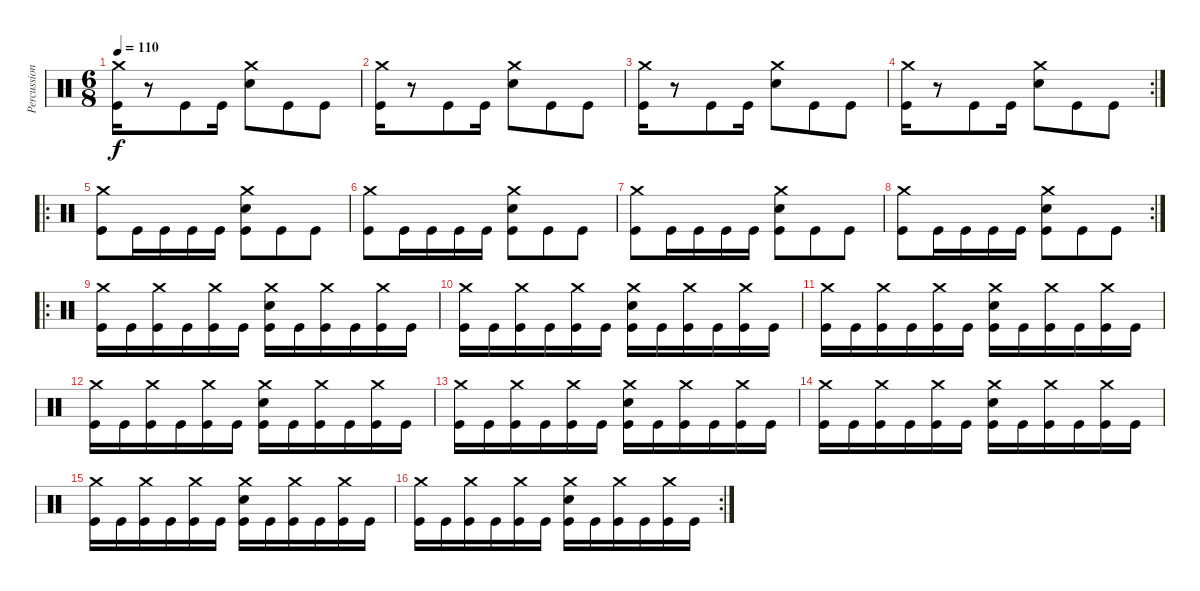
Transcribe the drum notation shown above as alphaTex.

\track ("Percussion" "Percussion") {instrument percussion}
\staff {score}
\articulation defaults
\ts (6 8)
\tempo 110
\clef neutral
\ks c
("Crash medium (hit)" "Kick (hit)").16{dy f} r.8 "Kick (hit)".8 "Kick (hit)".16 ("Crash medium (hit)" "Snare (hit) 2").8 "Kick (hit)".8 "Kick (hit)".8 |
("Crash medium (hit)" "Kick (hit)").16 r.8 "Kick (hit)".8 "Kick (hit)".16 ("Crash medium (hit)" "Snare (hit) 2").8 "Kick (hit)".8 "Kick (hit)".8 |
("Crash medium (hit)" "Kick (hit)").16 r.8 "Kick (hit)".8 "Kick (hit)".16 ("Crash medium (hit)" "Snare (hit) 2").8 "Kick (hit)".8 "Kick (hit)".8 |
\rc 2
("Crash medium (hit)" "Kick (hit)").16 r.8 "Kick (hit)".8 "Kick (hit)".16 ("Crash medium (hit)" "Snare (hit) 2").8 "Kick (hit)".8 "Kick (hit)".8 |
\ro
("Crash medium (hit)" "Kick (hit)").8 "Kick (hit)".16 "Kick (hit)".16 "Kick (hit)".16 "Kick (hit)".16 ("Crash medium (hit)" "Snare (hit) 2" "Kick (hit)").8 "Kick (hit)".8 "Kick (hit)".8 |
("Crash medium (hit)" "Kick (hit)").8 "Kick (hit)".16 "Kick (hit)".16 "Kick (hit)".16 "Kick (hit)".16 ("Crash medium (hit)" "Snare (hit) 2" "Kick (hit)").8 "Kick (hit)".8 "Kick (hit)".8 |
("Crash medium (hit)" "Kick (hit)").8 "Kick (hit)".16 "Kick (hit)".16 "Kick (hit)".16 "Kick (hit)".16 ("Crash medium (hit)" "Snare (hit) 2" "Kick (hit)").8 "Kick (hit)".8 "Kick (hit)".8 |
\rc 2
("Crash medium (hit)" "Kick (hit)").8 "Kick (hit)".16 "Kick (hit)".16 "Kick (hit)".16 "Kick (hit)".16 ("Crash medium (hit)" "Snare (hit) 2" "Kick (hit)").8 "Kick (hit)".8 "Kick (hit)".8 |
\ro
("Crash medium (hit)" "Kick (hit)").16 "Kick (hit)".16 ("Crash medium (hit)" "Kick (hit)").16 "Kick (hit)".16 ("Crash medium (hit)" "Kick (hit)").16 "Kick (hit)".16 ("Crash medium (hit)" "Snare (hit) 2" "Kick (hit)").16 "Kick (hit)".16 ("Crash medium (hit)" "Kick (hit)").16 "Kick (hit)".16 ("Crash medium (hit)" "Kick (hit)").16 "Kick (hit)".16 |
("Crash medium (hit)" "Kick (hit)").16 "Kick (hit)".16 ("Crash medium (hit)" "Kick (hit)").16 "Kick (hit)".16 ("Crash medium (hit)" "Kick (hit)").16 "Kick (hit)".16 ("Crash medium (hit)" "Snare (hit) 2" "Kick (hit)").16 "Kick (hit)".16 ("Crash medium (hit)" "Kick (hit)").16 "Kick (hit)".16 ("Crash medium (hit)" "Kick (hit)").16 "Kick (hit)".16 |
("Crash medium (hit)" "Kick (hit)").16 "Kick (hit)".16 ("Crash medium (hit)" "Kick (hit)").16 "Kick (hit)".16 ("Crash medium (hit)" "Kick (hit)").16 "Kick (hit)".16 ("Crash medium (hit)" "Snare (hit) 2" "Kick (hit)").16 "Kick (hit)".16 ("Crash medium (hit)" "Kick (hit)").16 "Kick (hit)".16 ("Crash medium (hit)" "Kick (hit)").16 "Kick (hit)".16 |
("Crash medium (hit)" "Kick (hit)").16 "Kick (hit)".16 ("Crash medium (hit)" "Kick (hit)").16 "Kick (hit)".16 ("Crash medium (hit)" "Kick (hit)").16 "Kick (hit)".16 ("Crash medium (hit)" "Snare (hit) 2" "Kick (hit)").16 "Kick (hit)".16 ("Crash medium (hit)" "Kick (hit)").16 "Kick (hit)".16 ("Crash medium (hit)" "Kick (hit)").16 "Kick (hit)".16 |
("Crash medium (hit)" "Kick (hit)").16 "Kick (hit)".16 ("Crash medium (hit)" "Kick (hit)").16 "Kick (hit)".16 ("Crash medium (hit)" "Kick (hit)").16 "Kick (hit)".16 ("Crash medium (hit)" "Snare (hit) 2" "Kick (hit)").16 "Kick (hit)".16 ("Crash medium (hit)" "Kick (hit)").16 "Kick (hit)".16 ("Crash medium (hit)" "Kick (hit)").16 "Kick (hit)".16 |
("Crash medium (hit)" "Kick (hit)").16 "Kick (hit)".16 ("Crash medium (hit)" "Kick (hit)").16 "Kick (hit)".16 ("Crash medium (hit)" "Kick (hit)").16 "Kick (hit)".16 ("Crash medium (hit)" "Snare (hit) 2" "Kick (hit)").16 "Kick (hit)".16 ("Crash medium (hit)" "Kick (hit)").16 "Kick (hit)".16 ("Crash medium (hit)" "Kick (hit)").16 "Kick (hit)".16 |
("Crash medium (hit)" "Kick (hit)").16 "Kick (hit)".16 ("Crash medium (hit)" "Kick (hit)").16 "Kick (hit)".16 ("Crash medium (hit)" "Kick (hit)").16 "Kick (hit)".16 ("Crash medium (hit)" "Snare (hit) 2" "Kick (hit)").16 "Kick (hit)".16 ("Crash medium (hit)" "Kick (hit)").16 "Kick (hit)".16 ("Crash medium (hit)" "Kick (hit)").16 "Kick (hit)".16 |
\rc 2
("Crash medium (hit)" "Kick (hit)").16 "Kick (hit)".16 ("Crash medium (hit)" "Kick (hit)").16 "Kick (hit)".16 ("Crash medium (hit)" "Kick (hit)").16 "Kick (hit)".16 ("Crash medium (hit)" "Snare (hit) 2" "Kick (hit)").16 "Kick (hit)".16 ("Crash medium (hit)" "Kick (hit)").16 "Kick (hit)".16 ("Crash medium (hit)" "Kick (hit)").16 "Kick (hit)".16
